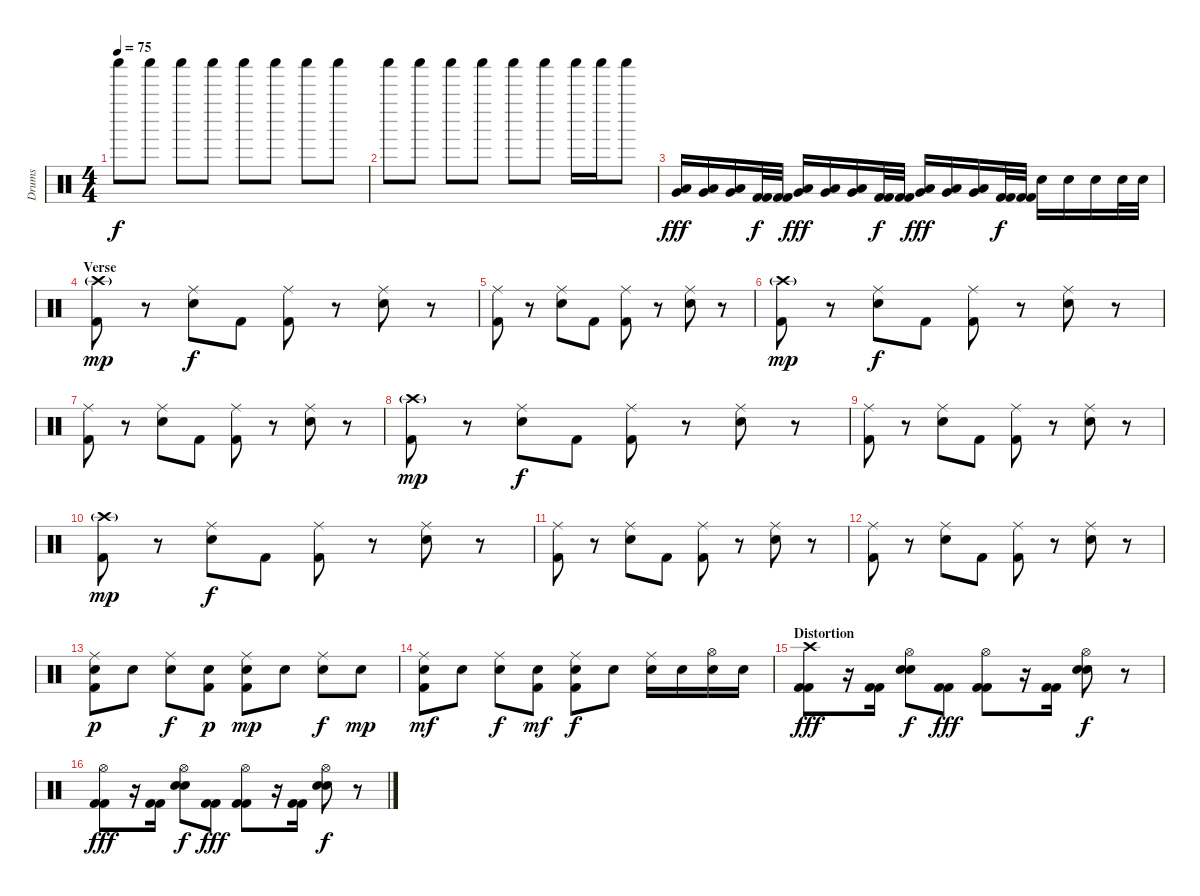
\track ("Drums" "Drums") {instrument percussion}
\staff {score}
\articulation defaults
\ts (4 4)
\tempo 75
\clef neutral
\ks c "Shaker (hit)".8{dy f} "Shaker (hit)".8 "Shaker (hit)".8 "Shaker (hit)".8 "Shaker (hit)".8 "Shaker (hit)".8 "Shaker (hit)".8 "Shaker (hit)".8
|
"Shaker (hit)".8 "Shaker (hit)".8 "Shaker (hit)".8 "Shaker (hit)".8 "Shaker (hit)".8 "Shaker (hit)".8 "Shaker (hit)".16 "Shaker (hit)".16 "Shaker (hit)".8 |
("Very Low Tom (hit)" "Low Floor Tom (hit)").16{dy fff} ("Very Low Tom (hit)" "Low Floor Tom (hit)").16 ("Very Low Tom (hit)" "Low Floor Tom (hit)").16 ("Kick (hit) 2" "Kick (hit) 2").32{dy f} ("Kick (hit) 2" "Kick (hit) 2").32 ("Very Low Tom (hit)" "Low Floor Tom (hit)").16{dy fff} ("Very Low Tom (hit)" "Low Floor Tom (hit)").16 ("Very Low Tom (hit)" "Low Floor Tom (hit)").16 ("Kick (hit) 2" "Kick (hit) 2").32{dy f} ("Kick (hit) 2" "Kick (hit) 2").32 ("Very Low Tom (hit)" "Low Floor Tom (hit)").16{dy fff} ("Very Low Tom (hit)" "Low Floor Tom (hit)").16 ("Very Low Tom (hit)" "Low Floor Tom (hit)").16 ("Kick (hit) 2" "Kick (hit) 2").32{dy f} ("Kick (hit) 2" "Kick (hit) 2").32 "Snare (hit) 2".16 "Snare (hit) 2".16 "Snare (hit) 2".16 "Snare (hit) 2".32 "Snare (hit) 2".32 |
\section ("" "Verse")
("Crash high (hit)"{g} "Kick (hit) 2").8{dy mp} r.8 ("Ride (middle)" "Snare (hit) 2").8{dy f} "Kick (hit) 2".8 ("Ride (middle)" "Kick (hit) 2").8 r.8 ("Ride (middle)" "Snare (hit) 2").8 r.8 |
("Ride (middle)" "Kick (hit) 2").8 r.8 ("Ride (middle)" "Snare (hit) 2").8 "Kick (hit) 2".8 ("Ride (middle)" "Kick (hit) 2").8 r.8 ("Ride (middle)" "Snare (hit) 2").8 r.8 |
("Crash high (hit)"{g} "Kick (hit) 2").8{dy mp} r.8 ("Ride (middle)" "Snare (hit) 2").8{dy f} "Kick (hit) 2".8 ("Ride (middle)" "Kick (hit) 2").8 r.8 ("Ride (middle)" "Snare (hit) 2").8 r.8 |
("Ride (middle)" "Kick (hit) 2").8 r.8 ("Ride (middle)" "Snare (hit) 2").8 "Kick (hit) 2".8 ("Ride (middle)" "Kick (hit) 2").8 r.8 ("Ride (middle)" "Snare (hit) 2").8 r.8 |
("Crash high (hit)"{g} "Kick (hit) 2").8{dy mp} r.8 ("Ride (middle)" "Snare (hit) 2").8{dy f} "Kick (hit) 2".8 ("Ride (middle)" "Kick (hit) 2").8 r.8 ("Ride (middle)" "Snare (hit) 2").8 r.8 |
("Ride (middle)" "Kick (hit) 2").8 r.8 ("Ride (middle)" "Snare (hit) 2").8 "Kick (hit) 2".8 ("Ride (middle)" "Kick (hit) 2").8 r.8 ("Ride (middle)" "Snare (hit) 2").8 r.8 |
("Crash high (hit)"{g} "Kick (hit) 2").8{dy mp} r.8 ("Ride (middle)" "Snare (hit) 2").8{dy f} "Kick (hit) 2".8 ("Ride (middle)" "Kick (hit) 2").8 r.8 ("Ride (middle)" "Snare (hit) 2").8 r.8 |
("Ride (middle)" "Kick (hit) 2").8 r.8 ("Ride (middle)" "Snare (hit) 2").8 "Kick (hit) 2".8 ("Ride (middle)" "Kick (hit) 2").8 r.8 ("Ride (middle)" "Snare (hit) 2").8 r.8 |
("Ride (middle)" "Kick (hit) 2").8 r.8 ("Ride (middle)" "Snare (hit) 2").8 "Kick (hit) 2".8 ("Ride (middle)" "Kick (hit) 2").8 r.8 ("Ride (middle)" "Snare (hit) 2").8 r.8 |
("Ride (middle)" "Snare (hit) 2" "Kick (hit) 2").8{dy p} "Snare (hit) 2".8 ("Ride (middle)" "Snare (hit) 2").8{dy f} ("Snare (hit) 2" "Kick (hit) 2").8{dy p} ("Ride (middle)" "Snare (hit) 2" "Kick (hit) 2").8{dy mp} "Snare (hit) 2".8 ("Ride (middle)" "Snare (hit) 2").8{dy f} "Snare (hit) 2".8{dy mp} |
("Ride (middle)" "Snare (hit) 2" "Kick (hit) 2").8{dy mf} "Snare (hit) 2".8 ("Ride (middle)" "Snare (hit) 2").8{dy f} ("Snare (hit) 2" "Kick (hit) 2").8{dy mf} ("Ride (middle)" "Snare (hit) 2" "Kick (hit) 2").8{dy f} "Snare (hit) 2".8 ("Ride (middle)" "Snare (hit) 2").16 "Snare (hit) 2".16 ("Hi-Hat (open)" "Snare (hit) 2").16 "Snare (hit) 2".16 |
\section ("" "Distortion")
("Crash high (hit)" "Kick (hit) 2" "Kick (hit) 2").8{dy fff} r.16 ("Kick (hit) 2" "Kick (hit) 2").16 ("Hi-Hat (open)" "Snare (hit) 2" "Snare (hit) 2").8{dy f} ("Kick (hit) 2" "Kick (hit) 2").8{dy fff} ("Hi-Hat (open)" "Kick (hit) 2" "Kick (hit) 2").8 r.16 ("Kick (hit) 2" "Kick (hit) 2").16 ("Hi-Hat (open)" "Snare (hit) 2" "Snare (hit) 2").8{dy f} r.8 |
("Hi-Hat (open)" "Kick (hit) 2" "Kick (hit) 2").8{dy fff} r.16 ("Kick (hit) 2" "Kick (hit) 2").16 ("Hi-Hat (open)" "Snare (hit) 2" "Snare (hit) 2").8{dy f} ("Kick (hit) 2" "Kick (hit) 2").8{dy fff} ("Hi-Hat (open)" "Kick (hit) 2" "Kick (hit) 2").8 r.16 ("Kick (hit) 2" "Kick (hit) 2").16 ("Hi-Hat (open)" "Snare (hit) 2" "Snare (hit) 2").8{dy f} r.8
